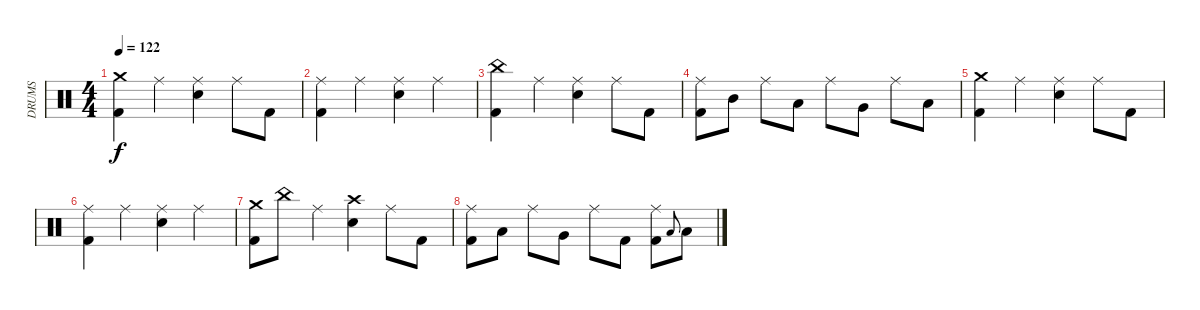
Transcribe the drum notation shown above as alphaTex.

\track ("DRUMS" "DRUMS") {instrument percussion}
\staff {score}
\articulation defaults
\ts (4 4)
\tempo 122
\clef neutral
\ks c
("Crash medium (hit)" "Kick (hit) 2").4{dy f} "Ride (middle)".4 ("Ride (middle)" "Snare (hit) 2").4 "Ride (middle)".8 "Kick (hit) 2".8 |
("Ride (middle)" "Kick (hit) 2").4 "Ride (middle)".4 ("Ride (middle)" "Snare (hit) 2").4 "Ride (middle)".4 |
("China (hit)" "Kick (hit) 2").4 "Ride (middle)".4 ("Ride (middle)" "Snare (hit) 2").4 "Ride (middle)".8 "Kick (hit) 2".8 |
("Ride (middle)" "Kick (hit) 2").8 "Mid Tom (hit)".8 "Ride (middle)".8 "Low Tom (hit)".8 "Ride (middle)".8 "Very Low Tom (hit)".8 "Ride (middle)".8 "Low Floor Tom (hit)".8 |
("Crash medium (hit)" "Kick (hit) 2").4 "Ride (middle)".4 ("Ride (middle)" "Snare (hit) 2").4 "Ride (middle)".8 "Kick (hit) 2".8 |
("Ride (middle)" "Kick (hit) 2").4 "Ride (middle)".4 ("Ride (middle)" "Snare (hit) 2").4 "Ride (middle)".4 |
("Crash medium (hit)" "Kick (hit) 2").8 "China (hit)".8 "Ride (middle)".4 ("Crash high (hit)" "Snare (hit) 2").4 "Ride (middle)".8 "Kick (hit) 2".8 |
("Ride (middle)" "Kick (hit) 2").8 "Low Tom (hit)".8 "Ride (middle)".8 "Very Low Tom (hit)".8 "Ride (middle)".8 "Kick (hit) 2".8 ("Ride (middle)" "Kick (hit) 2").8 "Low Floor Tom (hit)".8{gr onbeat} "Low Floor Tom (hit)".8
